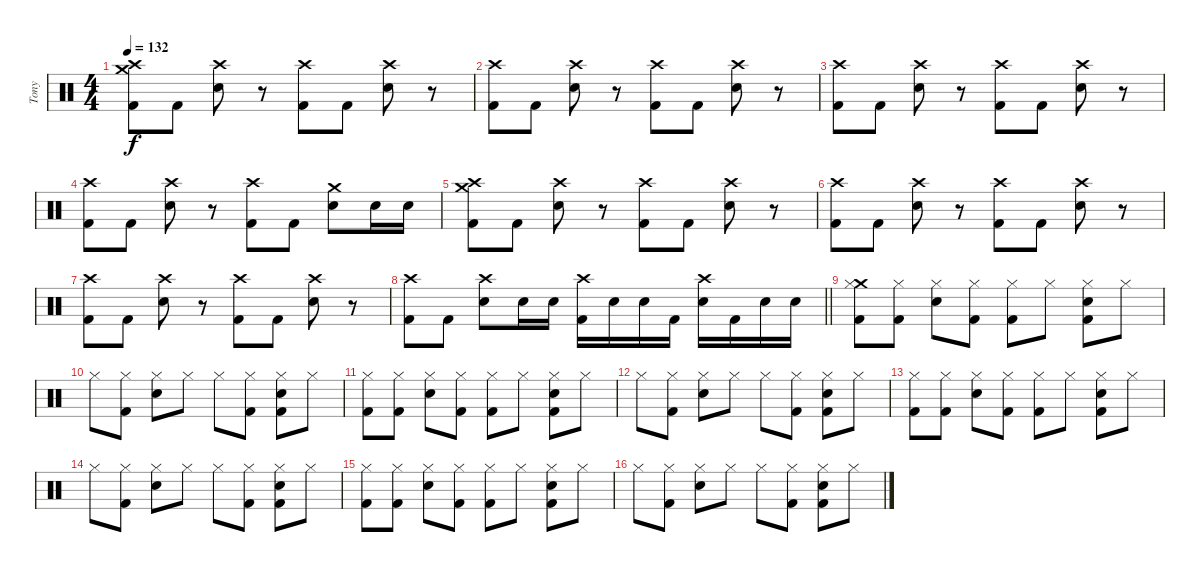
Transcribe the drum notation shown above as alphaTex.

\track ("Tony" "Tony") {instrument percussion}
\staff {score}
\articulation defaults
\ts (4 4)
\section ("" "")
\tempo 132
\clef neutral
\ks c
("Crash high (hit)" "Crash medium (hit)" "Kick (hit) 2").8{dy f} "Kick (hit) 2".8 ("Crash high (hit)" "Electric Snare (hit)").8 r.8 ("Crash high (hit)" "Kick (hit) 2").8 "Kick (hit) 2".8 ("Crash high (hit)" "Electric Snare (hit)").8 r.8 |
("Crash high (hit)" "Kick (hit) 2").8 "Kick (hit) 2".8 ("Crash high (hit)" "Electric Snare (hit)").8 r.8 ("Crash high (hit)" "Kick (hit) 2").8 "Kick (hit) 2".8 ("Crash high (hit)" "Electric Snare (hit)").8 r.8 |
("Crash high (hit)" "Kick (hit) 2").8 "Kick (hit) 2".8 ("Crash high (hit)" "Electric Snare (hit)").8 r.8 ("Crash high (hit)" "Kick (hit) 2").8 "Kick (hit) 2".8 ("Crash high (hit)" "Electric Snare (hit)").8 r.8 |
("Crash high (hit)" "Kick (hit) 2").8 "Kick (hit) 2".8 ("Crash high (hit)" "Electric Snare (hit)").8 r.8 ("Crash high (hit)" "Kick (hit) 2").8 "Kick (hit) 2".8 ("Crash medium (hit)" "Electric Snare (hit)").8 "Electric Snare (hit)".16 "Electric Snare (hit)".16 |
("Crash high (hit)" "Crash medium (hit)" "Kick (hit) 2").8 "Kick (hit) 2".8 ("Crash high (hit)" "Electric Snare (hit)").8 r.8 ("Crash high (hit)" "Kick (hit) 2").8 "Kick (hit) 2".8 ("Crash high (hit)" "Electric Snare (hit)").8 r.8 |
("Crash high (hit)" "Kick (hit) 2").8 "Kick (hit) 2".8 ("Crash high (hit)" "Electric Snare (hit)").8 r.8 ("Crash high (hit)" "Kick (hit) 2").8 "Kick (hit) 2".8 ("Crash high (hit)" "Electric Snare (hit)").8 r.8 |
("Crash high (hit)" "Kick (hit) 2").8 "Kick (hit) 2".8 ("Crash high (hit)" "Electric Snare (hit)").8 r.8 ("Crash high (hit)" "Kick (hit) 2").8 "Kick (hit) 2".8 ("Crash high (hit)" "Electric Snare (hit)").8 r.8 |
\barLineRight lightlight
("Crash high (hit)" "Kick (hit) 2").8 "Kick (hit) 2".8 ("Crash high (hit)" "Electric Snare (hit)").8 "Electric Snare (hit)".16 "Electric Snare (hit)".16 ("Crash high (hit)" "Kick (hit) 2").16 "Electric Snare (hit)".16 "Electric Snare (hit)".16 "Kick (hit) 2".16 ("Crash high (hit)" "Electric Snare (hit)").16 "Kick (hit) 2".16 "Electric Snare (hit)".16 "Electric Snare (hit)".16 |
\section ("" "")
("Crash medium (hit)" "Hi-Hat (closed)" "Kick (hit) 2").8 ("Hi-Hat (closed)" "Kick (hit) 2").8 ("Hi-Hat (closed)" "Electric Snare (hit)").8 ("Hi-Hat (closed)" "Kick (hit) 2").8 ("Hi-Hat (closed)" "Kick (hit) 2").8 "Hi-Hat (closed)".8 ("Hi-Hat (closed)" "Electric Snare (hit)" "Kick (hit) 2").8 "Hi-Hat (closed)".8 |
"Hi-Hat (closed)".8 ("Hi-Hat (closed)" "Kick (hit) 2").8 ("Hi-Hat (closed)" "Electric Snare (hit)").8 "Hi-Hat (closed)".8 "Hi-Hat (closed)".8 ("Hi-Hat (closed)" "Kick (hit) 2").8 ("Hi-Hat (closed)" "Kick (hit) 2" "Electric Snare (hit)").8 "Hi-Hat (closed)".8 |
("Hi-Hat (closed)" "Kick (hit) 2").8 ("Hi-Hat (closed)" "Kick (hit) 2").8 ("Hi-Hat (closed)" "Electric Snare (hit)").8 ("Hi-Hat (closed)" "Kick (hit) 2").8 ("Hi-Hat (closed)" "Kick (hit) 2").8 "Hi-Hat (closed)".8 ("Hi-Hat (closed)" "Electric Snare (hit)" "Kick (hit) 2").8 "Hi-Hat (closed)".8 |
"Hi-Hat (closed)".8 ("Hi-Hat (closed)" "Kick (hit) 2").8 ("Hi-Hat (closed)" "Electric Snare (hit)").8 "Hi-Hat (closed)".8 "Hi-Hat (closed)".8 ("Hi-Hat (closed)" "Kick (hit) 2").8 ("Hi-Hat (closed)" "Kick (hit) 2" "Electric Snare (hit)").8 "Hi-Hat (closed)".8 |
("Hi-Hat (closed)" "Kick (hit) 2").8 ("Hi-Hat (closed)" "Kick (hit) 2").8 ("Hi-Hat (closed)" "Electric Snare (hit)").8 ("Hi-Hat (closed)" "Kick (hit) 2").8 ("Hi-Hat (closed)" "Kick (hit) 2").8 "Hi-Hat (closed)".8 ("Hi-Hat (closed)" "Electric Snare (hit)" "Kick (hit) 2").8 "Hi-Hat (closed)".8 |
"Hi-Hat (closed)".8 ("Hi-Hat (closed)" "Kick (hit) 2").8 ("Hi-Hat (closed)" "Electric Snare (hit)").8 "Hi-Hat (closed)".8 "Hi-Hat (closed)".8 ("Hi-Hat (closed)" "Kick (hit) 2").8 ("Hi-Hat (closed)" "Kick (hit) 2" "Electric Snare (hit)").8 "Hi-Hat (closed)".8 |
("Hi-Hat (closed)" "Kick (hit) 2").8 ("Hi-Hat (closed)" "Kick (hit) 2").8 ("Hi-Hat (closed)" "Electric Snare (hit)").8 ("Hi-Hat (closed)" "Kick (hit) 2").8 ("Hi-Hat (closed)" "Kick (hit) 2").8 "Hi-Hat (closed)".8 ("Hi-Hat (closed)" "Electric Snare (hit)" "Kick (hit) 2").8 "Hi-Hat (closed)".8 |
"Hi-Hat (closed)".8 ("Hi-Hat (closed)" "Kick (hit) 2").8 ("Hi-Hat (closed)" "Electric Snare (hit)").8 "Hi-Hat (closed)".8 "Hi-Hat (closed)".8 ("Hi-Hat (closed)" "Kick (hit) 2").8 ("Hi-Hat (closed)" "Kick (hit) 2" "Electric Snare (hit)").8 "Hi-Hat (closed)".8
